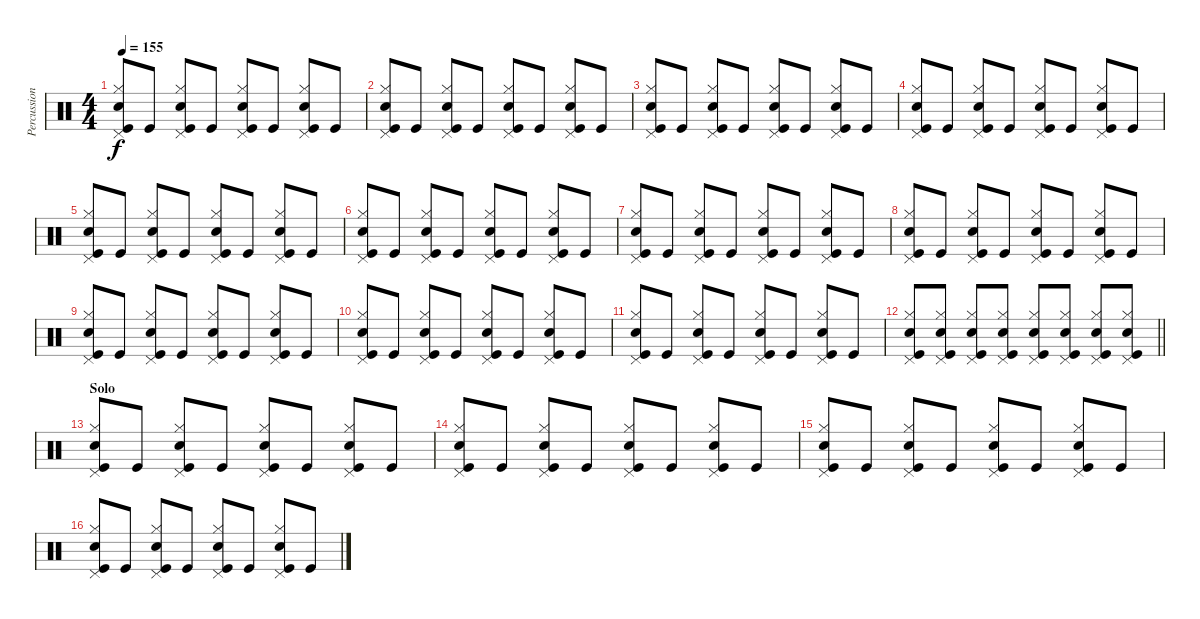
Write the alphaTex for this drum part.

\track ("Percussions" "Percussion") {instrument percussion}
\staff {score}
\articulation defaults
\ts (4 4)
\tempo 155
\clef neutral
\ks c
("Snare (hit) 2" "Hi-Hat (closed)" "Pedal Hi-Hat (hit)" "Kick (hit)").8{dy f} "Kick (hit)".8 ("Snare (hit) 2" "Hi-Hat (closed)" "Pedal Hi-Hat (hit)" "Kick (hit)").8 "Kick (hit)".8 ("Snare (hit) 2" "Hi-Hat (closed)" "Pedal Hi-Hat (hit)" "Kick (hit)").8 "Kick (hit)".8 ("Snare (hit) 2" "Hi-Hat (closed)" "Pedal Hi-Hat (hit)" "Kick (hit)").8 "Kick (hit)".8 |
("Snare (hit) 2" "Hi-Hat (closed)" "Pedal Hi-Hat (hit)" "Kick (hit)").8 "Kick (hit)".8 ("Snare (hit) 2" "Hi-Hat (closed)" "Pedal Hi-Hat (hit)" "Kick (hit)").8 "Kick (hit)".8 ("Snare (hit) 2" "Hi-Hat (closed)" "Pedal Hi-Hat (hit)" "Kick (hit)").8 "Kick (hit)".8 ("Snare (hit) 2" "Hi-Hat (closed)" "Pedal Hi-Hat (hit)" "Kick (hit)").8 "Kick (hit)".8 |
("Snare (hit) 2" "Hi-Hat (closed)" "Pedal Hi-Hat (hit)" "Kick (hit)").8 "Kick (hit)".8 ("Snare (hit) 2" "Hi-Hat (closed)" "Pedal Hi-Hat (hit)" "Kick (hit)").8 "Kick (hit)".8 ("Snare (hit) 2" "Hi-Hat (closed)" "Pedal Hi-Hat (hit)" "Kick (hit)").8 "Kick (hit)".8 ("Snare (hit) 2" "Hi-Hat (closed)" "Pedal Hi-Hat (hit)" "Kick (hit)").8 "Kick (hit)".8 |
("Snare (hit) 2" "Hi-Hat (closed)" "Pedal Hi-Hat (hit)" "Kick (hit)").8 "Kick (hit)".8 ("Snare (hit) 2" "Hi-Hat (closed)" "Pedal Hi-Hat (hit)" "Kick (hit)").8 "Kick (hit)".8 ("Snare (hit) 2" "Hi-Hat (closed)" "Pedal Hi-Hat (hit)" "Kick (hit)").8 "Kick (hit)".8 ("Snare (hit) 2" "Hi-Hat (closed)" "Pedal Hi-Hat (hit)" "Kick (hit)").8 "Kick (hit)".8 |
("Snare (hit) 2" "Hi-Hat (closed)" "Pedal Hi-Hat (hit)" "Kick (hit)").8 "Kick (hit)".8 ("Snare (hit) 2" "Hi-Hat (closed)" "Pedal Hi-Hat (hit)" "Kick (hit)").8 "Kick (hit)".8 ("Snare (hit) 2" "Hi-Hat (closed)" "Pedal Hi-Hat (hit)" "Kick (hit)").8 "Kick (hit)".8 ("Snare (hit) 2" "Hi-Hat (closed)" "Pedal Hi-Hat (hit)" "Kick (hit)").8 "Kick (hit)".8 |
("Snare (hit) 2" "Hi-Hat (closed)" "Pedal Hi-Hat (hit)" "Kick (hit)").8 "Kick (hit)".8 ("Snare (hit) 2" "Hi-Hat (closed)" "Pedal Hi-Hat (hit)" "Kick (hit)").8 "Kick (hit)".8 ("Snare (hit) 2" "Hi-Hat (closed)" "Pedal Hi-Hat (hit)" "Kick (hit)").8 "Kick (hit)".8 ("Snare (hit) 2" "Hi-Hat (closed)" "Pedal Hi-Hat (hit)" "Kick (hit)").8 "Kick (hit)".8 |
("Snare (hit) 2" "Hi-Hat (closed)" "Pedal Hi-Hat (hit)" "Kick (hit)").8 "Kick (hit)".8 ("Snare (hit) 2" "Hi-Hat (closed)" "Pedal Hi-Hat (hit)" "Kick (hit)").8 "Kick (hit)".8 ("Snare (hit) 2" "Hi-Hat (closed)" "Pedal Hi-Hat (hit)" "Kick (hit)").8 "Kick (hit)".8 ("Snare (hit) 2" "Hi-Hat (closed)" "Pedal Hi-Hat (hit)" "Kick (hit)").8 "Kick (hit)".8 |
("Snare (hit) 2" "Hi-Hat (closed)" "Pedal Hi-Hat (hit)" "Kick (hit)").8 "Kick (hit)".8 ("Snare (hit) 2" "Hi-Hat (closed)" "Pedal Hi-Hat (hit)" "Kick (hit)").8 "Kick (hit)".8 ("Snare (hit) 2" "Hi-Hat (closed)" "Pedal Hi-Hat (hit)" "Kick (hit)").8 "Kick (hit)".8 ("Snare (hit) 2" "Hi-Hat (closed)" "Pedal Hi-Hat (hit)" "Kick (hit)").8 "Kick (hit)".8 |
("Snare (hit) 2" "Hi-Hat (closed)" "Pedal Hi-Hat (hit)" "Kick (hit)").8 "Kick (hit)".8 ("Snare (hit) 2" "Hi-Hat (closed)" "Pedal Hi-Hat (hit)" "Kick (hit)").8 "Kick (hit)".8 ("Snare (hit) 2" "Hi-Hat (closed)" "Pedal Hi-Hat (hit)" "Kick (hit)").8 "Kick (hit)".8 ("Snare (hit) 2" "Hi-Hat (closed)" "Pedal Hi-Hat (hit)" "Kick (hit)").8 "Kick (hit)".8 |
("Snare (hit) 2" "Hi-Hat (closed)" "Pedal Hi-Hat (hit)" "Kick (hit)").8 "Kick (hit)".8 ("Snare (hit) 2" "Hi-Hat (closed)" "Pedal Hi-Hat (hit)" "Kick (hit)").8 "Kick (hit)".8 ("Snare (hit) 2" "Hi-Hat (closed)" "Pedal Hi-Hat (hit)" "Kick (hit)").8 "Kick (hit)".8 ("Snare (hit) 2" "Hi-Hat (closed)" "Pedal Hi-Hat (hit)" "Kick (hit)").8 "Kick (hit)".8 |
("Snare (hit) 2" "Hi-Hat (closed)" "Pedal Hi-Hat (hit)" "Kick (hit)").8 "Kick (hit)".8 ("Snare (hit) 2" "Hi-Hat (closed)" "Pedal Hi-Hat (hit)" "Kick (hit)").8 "Kick (hit)".8 ("Snare (hit) 2" "Hi-Hat (closed)" "Pedal Hi-Hat (hit)" "Kick (hit)").8 "Kick (hit)".8 ("Snare (hit) 2" "Hi-Hat (closed)" "Pedal Hi-Hat (hit)" "Kick (hit)").8 "Kick (hit)".8 |
\barLineRight lightlight
("Snare (hit) 2" "Hi-Hat (closed)" "Pedal Hi-Hat (hit)" "Kick (hit)").8 ("Snare (hit) 2" "Hi-Hat (closed)" "Pedal Hi-Hat (hit)" "Kick (hit)").8 ("Snare (hit) 2" "Hi-Hat (closed)" "Pedal Hi-Hat (hit)" "Kick (hit)").8 ("Snare (hit) 2" "Hi-Hat (closed)" "Pedal Hi-Hat (hit)" "Kick (hit)").8 ("Snare (hit) 2" "Hi-Hat (closed)" "Pedal Hi-Hat (hit)" "Kick (hit)").8 ("Snare (hit) 2" "Hi-Hat (closed)" "Pedal Hi-Hat (hit)" "Kick (hit)").8 ("Snare (hit) 2" "Hi-Hat (closed)" "Pedal Hi-Hat (hit)" "Kick (hit)").8 ("Snare (hit) 2" "Hi-Hat (closed)" "Pedal Hi-Hat (hit)" "Kick (hit)").8 |
\section ("" "Solo")
("Snare (hit) 2" "Hi-Hat (closed)" "Pedal Hi-Hat (hit)" "Kick (hit)").8 "Kick (hit)".8 ("Snare (hit) 2" "Hi-Hat (closed)" "Pedal Hi-Hat (hit)" "Kick (hit)").8 "Kick (hit)".8 ("Snare (hit) 2" "Hi-Hat (closed)" "Pedal Hi-Hat (hit)" "Kick (hit)").8 "Kick (hit)".8 ("Snare (hit) 2" "Hi-Hat (closed)" "Pedal Hi-Hat (hit)" "Kick (hit)").8 "Kick (hit)".8 |
("Snare (hit) 2" "Hi-Hat (closed)" "Pedal Hi-Hat (hit)" "Kick (hit)").8 "Kick (hit)".8 ("Snare (hit) 2" "Hi-Hat (closed)" "Pedal Hi-Hat (hit)" "Kick (hit)").8 "Kick (hit)".8 ("Snare (hit) 2" "Hi-Hat (closed)" "Pedal Hi-Hat (hit)" "Kick (hit)").8 "Kick (hit)".8 ("Snare (hit) 2" "Hi-Hat (closed)" "Pedal Hi-Hat (hit)" "Kick (hit)").8 "Kick (hit)".8 |
("Snare (hit) 2" "Hi-Hat (closed)" "Pedal Hi-Hat (hit)" "Kick (hit)").8 "Kick (hit)".8 ("Snare (hit) 2" "Hi-Hat (closed)" "Pedal Hi-Hat (hit)" "Kick (hit)").8 "Kick (hit)".8 ("Snare (hit) 2" "Hi-Hat (closed)" "Pedal Hi-Hat (hit)" "Kick (hit)").8 "Kick (hit)".8 ("Snare (hit) 2" "Hi-Hat (closed)" "Pedal Hi-Hat (hit)" "Kick (hit)").8 "Kick (hit)".8 |
("Snare (hit) 2" "Hi-Hat (closed)" "Pedal Hi-Hat (hit)" "Kick (hit)").8 "Kick (hit)".8 ("Snare (hit) 2" "Hi-Hat (closed)" "Pedal Hi-Hat (hit)" "Kick (hit)").8 "Kick (hit)".8 ("Snare (hit) 2" "Hi-Hat (closed)" "Pedal Hi-Hat (hit)" "Kick (hit)").8 "Kick (hit)".8 ("Snare (hit) 2" "Hi-Hat (closed)" "Pedal Hi-Hat (hit)" "Kick (hit)").8 "Kick (hit)".8
